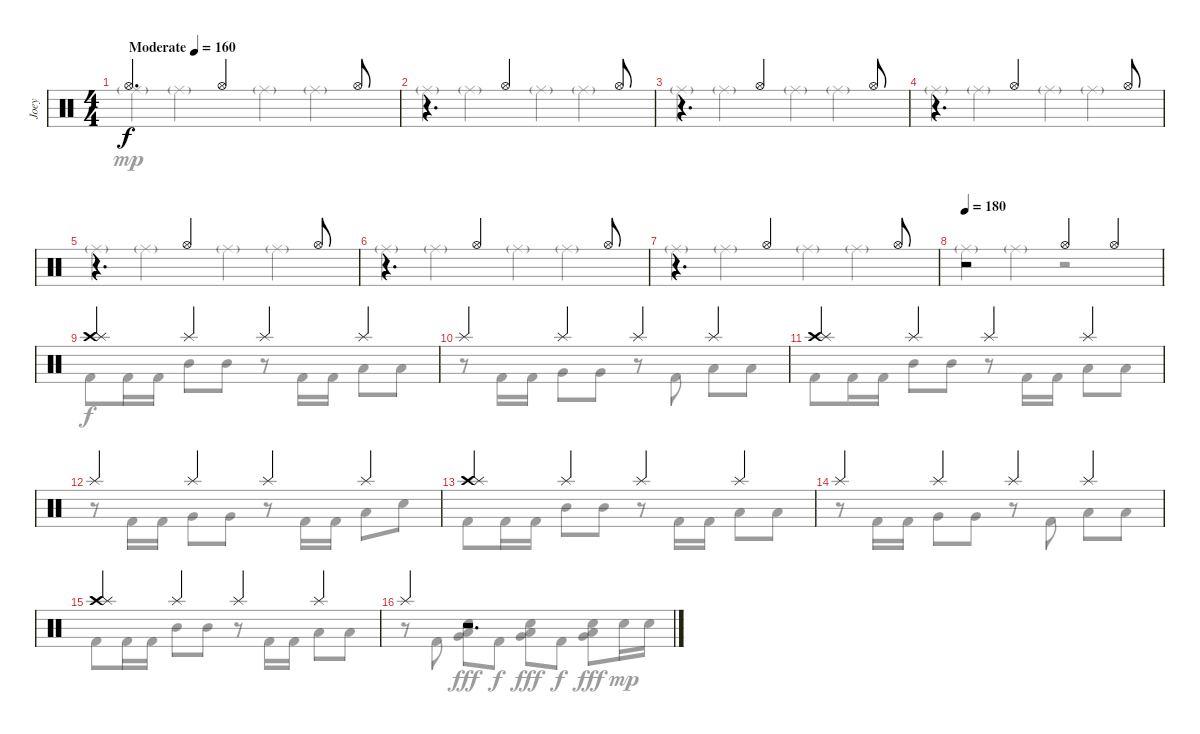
\track ("Joey" "Joey") {instrument percussion}
\staff {score}
\articulation defaults
\voice
\ts (4 4)
\tempo (160 "Moderate")
\clef neutral
\ks c "Hi-Hat (open)".4{d dy f} "Hi-Hat (open)".2 "Hi-Hat (open)".8
|
r.4{d} "Hi-Hat (open)".2 "Hi-Hat (open)".8 |
r.4{d} "Hi-Hat (open)".2 "Hi-Hat (open)".8 |
r.4{d} "Hi-Hat (open)".2 "Hi-Hat (open)".8 |
r.4{d} "Hi-Hat (open)".2 "Hi-Hat (open)".8 |
r.4{d} "Hi-Hat (open)".2 "Hi-Hat (open)".8 |
r.4{d} "Hi-Hat (open)".2 "Hi-Hat (open)".8 |
\tempo 180
r.2 "Hi-Hat (open)".4 "Hi-Hat (open)".4 |
("Crash high (hit)" "Splash (hit)").4 "Splash (hit)".4 "Splash (hit)".4 "Splash (hit)".4 |
"Splash (hit)".4 "Splash (hit)".4 "Splash (hit)".4 "Splash (hit)".4 |
("Crash high (hit)" "Splash (hit)").4 "Splash (hit)".4 "Splash (hit)".4 "Splash (hit)".4 |
"Splash (hit)".4 "Splash (hit)".4 "Splash (hit)".4 "Splash (hit)".4 |
("Crash high (hit)" "Splash (hit)").4 "Splash (hit)".4 "Splash (hit)".4 "Splash (hit)".4 |
"Splash (hit)".4 "Splash (hit)".4 "Splash (hit)".4 "Splash (hit)".4 |
("Crash high (hit)" "Splash (hit)").4 "Splash (hit)".4 "Splash (hit)".4 "Splash (hit)".4 |
"Splash (hit)".4 r.2{d}
\voice
\clef neutral
\ottava regular
\simile none
\ks c "Ride (middle)"{g}.4{dy mp} "Ride (middle)"{g}.4 "Ride (middle)"{g}.4 "Ride (middle)"{g}.4
|
"Ride (middle)"{g}.4 "Ride (middle)"{g}.4 "Ride (middle)"{g}.4 "Ride (middle)"{g}.4 |
"Ride (middle)"{g}.4 "Ride (middle)"{g}.4 "Ride (middle)"{g}.4 "Ride (middle)"{g}.4 |
"Ride (middle)"{g}.4 "Ride (middle)"{g}.4 "Ride (middle)"{g}.4 "Ride (middle)"{g}.4 |
"Ride (middle)"{g}.4 "Ride (middle)"{g}.4 "Ride (middle)"{g}.4 "Ride (middle)"{g}.4 |
"Ride (middle)"{g}.4 "Ride (middle)"{g}.4 "Ride (middle)"{g}.4 "Ride (middle)"{g}.4 |
"Ride (middle)"{g}.4 "Ride (middle)"{g}.4 "Ride (middle)"{g}.4 "Ride (middle)"{g}.4 |
"Ride (middle)"{g}.4 "Ride (middle)"{g}.4 r.2 |
"Kick (hit) 2".8{dy f} "Kick (hit) 2".16 "Kick (hit) 2".16 "Mid Tom (hit)".8 "Mid Tom (hit)".8 r.8 "Kick (hit) 2".16 "Kick (hit) 2".16 "Low Tom (hit)".8 "Low Tom (hit)".8 |
r.8 "Kick (hit) 2".16 "Kick (hit) 2".16 "Very Low Tom (hit)".8 "Very Low Tom (hit)".8 r.8 "Kick (hit) 2".8 "Low Floor Tom (hit)".8 "Low Floor Tom (hit)".8 |
"Kick (hit) 2".8 "Kick (hit) 2".16 "Kick (hit) 2".16 "Mid Tom (hit)".8 "Mid Tom (hit)".8 r.8 "Kick (hit) 2".16 "Kick (hit) 2".16 "Low Tom (hit)".8 "Low Tom (hit)".8 |
r.8 "Kick (hit) 2".16 "Kick (hit) 2".16 "Very Low Tom (hit)".8 "Very Low Tom (hit)".8 r.8 "Kick (hit) 2".16 "Kick (hit) 2".16 "Low Floor Tom (hit)".8 "Electric Snare (hit)".8 |
"Kick (hit) 2".8 "Kick (hit) 2".16 "Kick (hit) 2".16 "Mid Tom (hit)".8 "Mid Tom (hit)".8 r.8 "Kick (hit) 2".16 "Kick (hit) 2".16 "Low Tom (hit)".8 "Low Tom (hit)".8 |
r.8 "Kick (hit) 2".16 "Kick (hit) 2".16 "Very Low Tom (hit)".8 "Very Low Tom (hit)".8 r.8 "Kick (hit) 2".8 "Low Floor Tom (hit)".8 "Low Floor Tom (hit)".8 |
"Kick (hit) 2".8 "Kick (hit) 2".16 "Kick (hit) 2".16 "Mid Tom (hit)".8 "Mid Tom (hit)".8 r.8 "Kick (hit) 2".16 "Kick (hit) 2".16 "Low Tom (hit)".8 "Low Tom (hit)".8 |
r.8 "Kick (hit) 2".8 ("Very Low Tom (hit)" "Low Floor Tom (hit)" "Electric Snare (hit)").8{dy fff} "Kick (hit) 2".8{dy f} ("Very Low Tom (hit)" "Low Floor Tom (hit)" "Electric Snare (hit)").8{dy fff} "Kick (hit) 2".8{dy f} ("Very Low Tom (hit)" "Low Floor Tom (hit)" "Electric Snare (hit)").8{dy fff} "Electric Snare (hit)".16{dy mp} "Electric Snare (hit)".16
